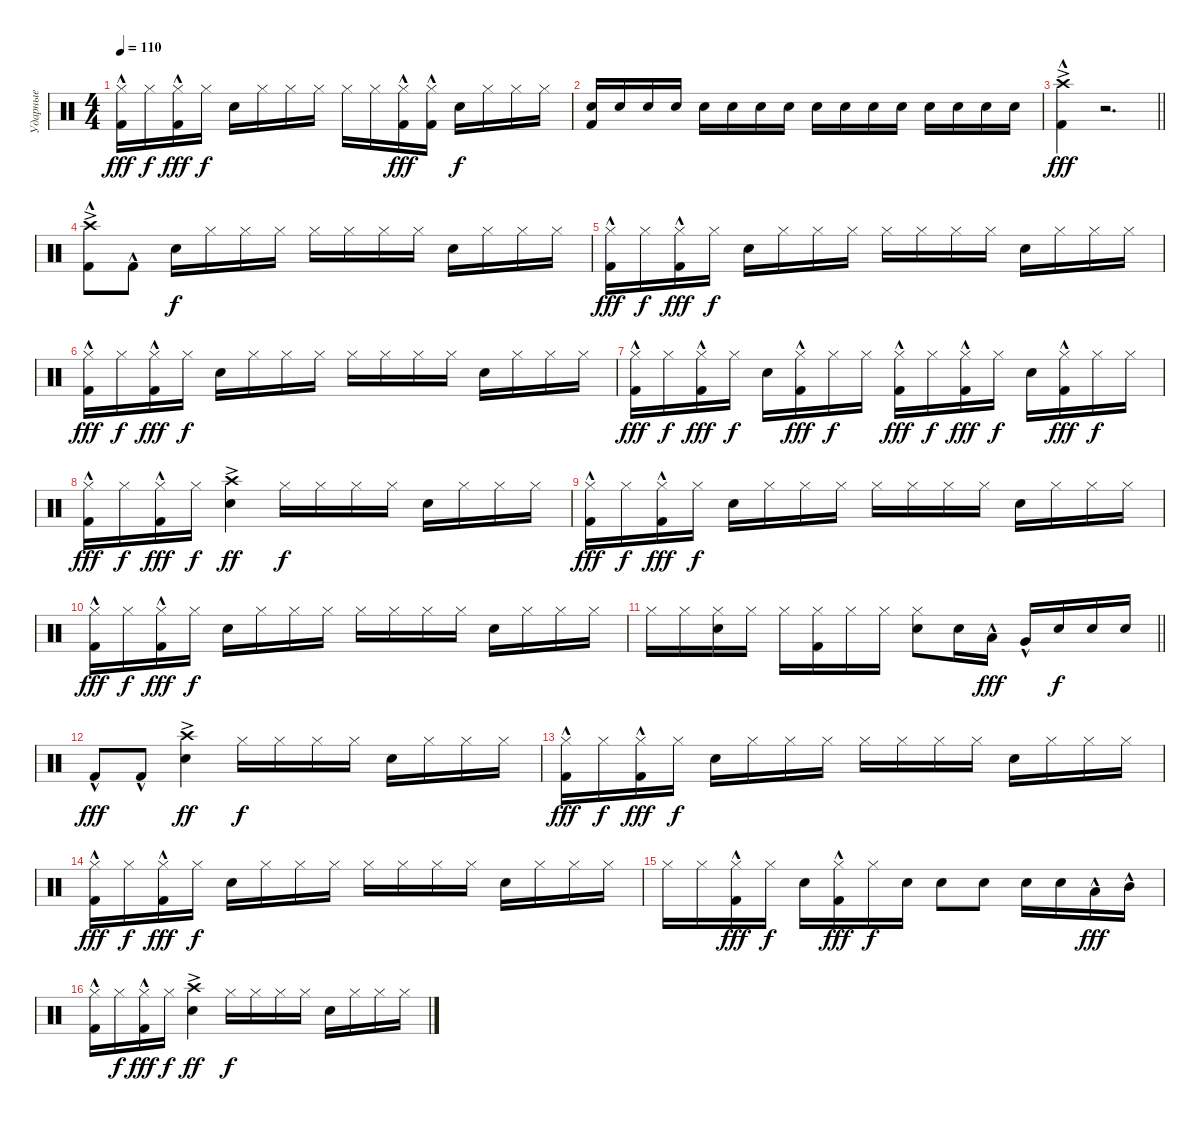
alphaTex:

\track ("Ударные" "Ударные") {instrument percussion}
\staff {score}
\articulation defaults
\ts (4 4)
\tempo 110
\clef neutral
\ks c
("Hi-Hat (closed)" "Kick (hit) 2"{hac}).16{dy fff} "Hi-Hat (closed)".16{dy f} ("Hi-Hat (closed)" "Kick (hit) 2"{hac}).16{dy fff} "Hi-Hat (closed)".16{dy f} "Snare (hit) 2".16 "Hi-Hat (closed)".16 "Hi-Hat (closed)".16 "Hi-Hat (closed)".16 "Hi-Hat (closed)".16 "Hi-Hat (closed)".16 ("Hi-Hat (closed)" "Kick (hit) 2"{hac}).16{dy fff} ("Hi-Hat (closed)" "Kick (hit) 2"{hac}).16 "Snare (hit) 2".16{dy f} "Hi-Hat (closed)".16 "Hi-Hat (closed)".16 "Hi-Hat (closed)".16 |
("Kick (hit) 2" "Snare (hit) 2").16 "Snare (hit) 2".16 "Snare (hit) 2".16 "Snare (hit) 2".16 "Snare (hit) 2".16 "Snare (hit) 2".16 "Snare (hit) 2".16 "Snare (hit) 2".16 "Snare (hit) 2".16 "Snare (hit) 2".16 "Snare (hit) 2".16 "Snare (hit) 2".16 "Snare (hit) 2".16 "Snare (hit) 2".16 "Snare (hit) 2".16 "Snare (hit) 2".16 |
\barLineRight lightlight
("Crash high (hit)"{ac} "Kick (hit) 2"{hac}).4{dy fff} r.2{d} |
("Crash high (hit)"{ac} "Kick (hit) 2"{hac}).8 "Kick (hit) 2"{hac}.8 "Snare (hit) 2".16{dy f} "Hi-Hat (closed)".16 "Hi-Hat (closed)".16 "Hi-Hat (closed)".16 "Hi-Hat (closed)".16 "Hi-Hat (closed)".16 "Hi-Hat (closed)".16 "Hi-Hat (closed)".16 "Snare (hit) 2".16 "Hi-Hat (closed)".16 "Hi-Hat (closed)".16 "Hi-Hat (closed)".16 |
("Hi-Hat (closed)" "Kick (hit) 2"{hac}).16{dy fff} "Hi-Hat (closed)".16{dy f} ("Hi-Hat (closed)" "Kick (hit) 2"{hac}).16{dy fff} "Hi-Hat (closed)".16{dy f} "Snare (hit) 2".16 "Hi-Hat (closed)".16 "Hi-Hat (closed)".16 "Hi-Hat (closed)".16 "Hi-Hat (closed)".16 "Hi-Hat (closed)".16 "Hi-Hat (closed)".16 "Hi-Hat (closed)".16 "Snare (hit) 2".16 "Hi-Hat (closed)".16 "Hi-Hat (closed)".16 "Hi-Hat (closed)".16 |
("Hi-Hat (closed)" "Kick (hit) 2"{hac}).16{dy fff} "Hi-Hat (closed)".16{dy f} ("Hi-Hat (closed)" "Kick (hit) 2"{hac}).16{dy fff} "Hi-Hat (closed)".16{dy f} "Snare (hit) 2".16 "Hi-Hat (closed)".16 "Hi-Hat (closed)".16 "Hi-Hat (closed)".16 "Hi-Hat (closed)".16 "Hi-Hat (closed)".16 "Hi-Hat (closed)".16 "Hi-Hat (closed)".16 "Snare (hit) 2".16 "Hi-Hat (closed)".16 "Hi-Hat (closed)".16 "Hi-Hat (closed)".16 |
("Hi-Hat (closed)" "Kick (hit) 2"{hac}).16{dy fff} "Hi-Hat (closed)".16{dy f} ("Hi-Hat (closed)" "Kick (hit) 2"{hac}).16{dy fff} "Hi-Hat (closed)".16{dy f} "Snare (hit) 2".16 ("Hi-Hat (closed)" "Kick (hit) 2"{hac}).16{dy fff} "Hi-Hat (closed)".16{dy f} "Hi-Hat (closed)".16 ("Hi-Hat (closed)" "Kick (hit) 2"{hac}).16{dy fff} "Hi-Hat (closed)".16{dy f} ("Hi-Hat (closed)" "Kick (hit) 2"{hac}).16{dy fff} "Hi-Hat (closed)".16{dy f} "Snare (hit) 2".16 ("Hi-Hat (closed)" "Kick (hit) 2"{hac}).16{dy fff} "Hi-Hat (closed)".16{dy f} "Hi-Hat (closed)".16 |
("Hi-Hat (closed)" "Kick (hit) 2"{hac}).16{dy fff} "Hi-Hat (closed)".16{dy f} ("Hi-Hat (closed)" "Kick (hit) 2"{hac}).16{dy fff} "Hi-Hat (closed)".16{dy f} ("Crash high (hit)"{ac} "Snare (hit) 2").4{dy ff} "Hi-Hat (closed)".16{dy f} "Hi-Hat (closed)".16 "Hi-Hat (closed)".16 "Hi-Hat (closed)".16 "Snare (hit) 2".16 "Hi-Hat (closed)".16 "Hi-Hat (closed)".16 "Hi-Hat (closed)".16 |
("Hi-Hat (closed)" "Kick (hit) 2"{hac}).16{dy fff} "Hi-Hat (closed)".16{dy f} ("Hi-Hat (closed)" "Kick (hit) 2"{hac}).16{dy fff} "Hi-Hat (closed)".16{dy f} "Snare (hit) 2".16 "Hi-Hat (closed)".16 "Hi-Hat (closed)".16 "Hi-Hat (closed)".16 "Hi-Hat (closed)".16 "Hi-Hat (closed)".16 "Hi-Hat (closed)".16 "Hi-Hat (closed)".16 "Snare (hit) 2".16 "Hi-Hat (closed)".16 "Hi-Hat (closed)".16 "Hi-Hat (closed)".16 |
("Hi-Hat (closed)" "Kick (hit) 2"{hac}).16{dy fff} "Hi-Hat (closed)".16{dy f} ("Hi-Hat (closed)" "Kick (hit) 2"{hac}).16{dy fff} "Hi-Hat (closed)".16{dy f} "Snare (hit) 2".16 "Hi-Hat (closed)".16 "Hi-Hat (closed)".16 "Hi-Hat (closed)".16 "Hi-Hat (closed)".16 "Hi-Hat (closed)".16 "Hi-Hat (closed)".16 "Hi-Hat (closed)".16 "Snare (hit) 2".16 "Hi-Hat (closed)".16 "Hi-Hat (closed)".16 "Hi-Hat (closed)".16 |
\barLineRight lightlight "Hi-Hat (closed)".16 "Hi-Hat (closed)".16
("Hi-Hat (closed)" "Snare (hit) 2").16 "Hi-Hat (closed)".16 "Hi-Hat (closed)".16 ("Hi-Hat (closed)" "Kick (hit) 2").16 "Hi-Hat (closed)".16 "Hi-Hat (closed)".16 ("Hi-Hat (closed)" "Snare (hit) 2").8 "Snare (hit) 2".16 "Low Tom (hit)"{hac}.16{dy fff} "Very Low Tom (hit)"{hac}.16 "Snare (hit) 2".16{dy f} "Snare (hit) 2".16 "Snare (hit) 2".16 |
\section ("" "")
"Kick (hit) 2"{hac}.8{dy fff} "Kick (hit) 2"{hac}.8 ("Crash high (hit)"{ac} "Snare (hit) 2").4{dy ff} "Hi-Hat (closed)".16{dy f} "Hi-Hat (closed)".16 "Hi-Hat (closed)".16 "Hi-Hat (closed)".16 "Snare (hit) 2".16 "Hi-Hat (closed)".16 "Hi-Hat (closed)".16 "Hi-Hat (closed)".16 |
("Hi-Hat (closed)" "Kick (hit) 2"{hac}).16{dy fff} "Hi-Hat (closed)".16{dy f} ("Hi-Hat (closed)" "Kick (hit) 2"{hac}).16{dy fff} "Hi-Hat (closed)".16{dy f} "Snare (hit) 2".16 "Hi-Hat (closed)".16 "Hi-Hat (closed)".16 "Hi-Hat (closed)".16 "Hi-Hat (closed)".16 "Hi-Hat (closed)".16 "Hi-Hat (closed)".16 "Hi-Hat (closed)".16 "Snare (hit) 2".16 "Hi-Hat (closed)".16 "Hi-Hat (closed)".16 "Hi-Hat (closed)".16 |
("Hi-Hat (closed)" "Kick (hit) 2"{hac}).16{dy fff} "Hi-Hat (closed)".16{dy f} ("Hi-Hat (closed)" "Kick (hit) 2"{hac}).16{dy fff} "Hi-Hat (closed)".16{dy f} "Snare (hit) 2".16 "Hi-Hat (closed)".16 "Hi-Hat (closed)".16 "Hi-Hat (closed)".16 "Hi-Hat (closed)".16 "Hi-Hat (closed)".16 "Hi-Hat (closed)".16 "Hi-Hat (closed)".16 "Snare (hit) 2".16 "Hi-Hat (closed)".16 "Hi-Hat (closed)".16 "Hi-Hat (closed)".16 |
"Hi-Hat (closed)".16 "Hi-Hat (closed)".16 ("Hi-Hat (closed)" "Kick (hit) 2"{hac}).16{dy fff} "Hi-Hat (closed)".16{dy f} "Snare (hit) 2".16 ("Hi-Hat (closed)" "Kick (hit) 2"{hac}).16{dy fff} "Hi-Hat (closed)".16{dy f} "Snare (hit) 2".16 "Snare (hit) 2".8 "Snare (hit) 2".8 "Snare (hit) 2".16 "Snare (hit) 2".16 "Low Tom (hit)"{hac}.16{dy fff} "Mid Tom (hit)"{hac}.16 |
("Hi-Hat (closed)" "Kick (hit) 2"{hac}).16 "Hi-Hat (closed)".16{dy f} ("Hi-Hat (closed)" "Kick (hit) 2"{hac}).16{dy fff} "Hi-Hat (closed)".16{dy f} ("Crash high (hit)"{ac} "Snare (hit) 2").4{dy ff} "Hi-Hat (closed)".16{dy f} "Hi-Hat (closed)".16 "Hi-Hat (closed)".16 "Hi-Hat (closed)".16 "Snare (hit) 2".16 "Hi-Hat (closed)".16 "Hi-Hat (closed)".16 "Hi-Hat (closed)".16
